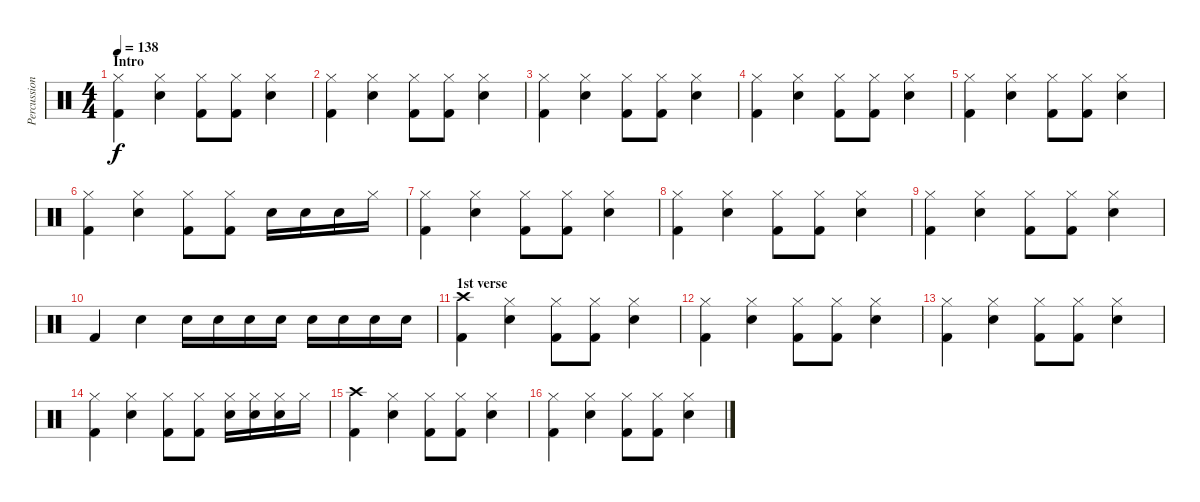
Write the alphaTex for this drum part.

\track ("Percussion" "Percussion") {instrument percussion}
\staff {score}
\articulation defaults
\ts (4 4)
\section ("" "Intro")
\tempo 138
\clef neutral
\ks c
("Kick (hit) 2" "Hi-Hat (closed)").4{dy f} ("Electric Snare (hit)" "Hi-Hat (closed)").4 ("Kick (hit) 2" "Hi-Hat (closed)").8 ("Kick (hit) 2" "Hi-Hat (closed)").8 ("Electric Snare (hit)" "Hi-Hat (closed)").4 |
("Kick (hit) 2" "Hi-Hat (closed)").4 ("Electric Snare (hit)" "Hi-Hat (closed)").4 ("Kick (hit) 2" "Hi-Hat (closed)").8 ("Kick (hit) 2" "Hi-Hat (closed)").8 ("Electric Snare (hit)" "Hi-Hat (closed)").4 |
("Kick (hit) 2" "Hi-Hat (closed)").4 ("Electric Snare (hit)" "Hi-Hat (closed)").4 ("Kick (hit) 2" "Hi-Hat (closed)").8 ("Kick (hit) 2" "Hi-Hat (closed)").8 ("Electric Snare (hit)" "Hi-Hat (closed)").4 |
("Kick (hit) 2" "Hi-Hat (closed)").4 ("Electric Snare (hit)" "Hi-Hat (closed)").4 ("Kick (hit) 2" "Hi-Hat (closed)").8 ("Kick (hit) 2" "Hi-Hat (closed)").8 ("Electric Snare (hit)" "Hi-Hat (closed)").4 |
("Kick (hit) 2" "Hi-Hat (closed)").4 ("Electric Snare (hit)" "Hi-Hat (closed)").4 ("Kick (hit) 2" "Hi-Hat (closed)").8 ("Kick (hit) 2" "Hi-Hat (closed)").8 ("Electric Snare (hit)" "Hi-Hat (closed)").4 |
("Kick (hit) 2" "Hi-Hat (closed)").4 ("Electric Snare (hit)" "Hi-Hat (closed)").4 ("Kick (hit) 2" "Hi-Hat (closed)").8 ("Kick (hit) 2" "Hi-Hat (closed)").8 "Electric Snare (hit)".16 "Electric Snare (hit)".16 "Electric Snare (hit)".16 "Hi-Hat (closed)".16 |
("Kick (hit) 2" "Hi-Hat (closed)").4 ("Electric Snare (hit)" "Hi-Hat (closed)").4 ("Kick (hit) 2" "Hi-Hat (closed)").8 ("Kick (hit) 2" "Hi-Hat (closed)").8 ("Electric Snare (hit)" "Hi-Hat (closed)").4 |
("Kick (hit) 2" "Hi-Hat (closed)").4 ("Electric Snare (hit)" "Hi-Hat (closed)").4 ("Kick (hit) 2" "Hi-Hat (closed)").8 ("Kick (hit) 2" "Hi-Hat (closed)").8 ("Electric Snare (hit)" "Hi-Hat (closed)").4 |
("Kick (hit) 2" "Hi-Hat (closed)").4 ("Electric Snare (hit)" "Hi-Hat (closed)").4 ("Kick (hit) 2" "Hi-Hat (closed)").8 ("Kick (hit) 2" "Hi-Hat (closed)").8 ("Electric Snare (hit)" "Hi-Hat (closed)").4 |
"Kick (hit) 2".4 "Electric Snare (hit)".4 "Electric Snare (hit)".16 "Electric Snare (hit)".16 "Electric Snare (hit)".16 "Electric Snare (hit)".16 "Electric Snare (hit)".16 "Electric Snare (hit)".16 "Electric Snare (hit)".16 "Electric Snare (hit)".16 |
\section ("" "1st verse")
("Kick (hit) 2" "Crash high (hit)").4 ("Electric Snare (hit)" "Hi-Hat (closed)").4 ("Kick (hit) 2" "Hi-Hat (closed)").8 ("Kick (hit) 2" "Hi-Hat (closed)").8 ("Electric Snare (hit)" "Hi-Hat (closed)").4 |
("Kick (hit) 2" "Hi-Hat (closed)").4 ("Electric Snare (hit)" "Hi-Hat (closed)").4 ("Kick (hit) 2" "Hi-Hat (closed)").8 ("Kick (hit) 2" "Hi-Hat (closed)").8 ("Electric Snare (hit)" "Hi-Hat (closed)").4 |
("Kick (hit) 2" "Hi-Hat (closed)").4 ("Electric Snare (hit)" "Hi-Hat (closed)").4 ("Kick (hit) 2" "Hi-Hat (closed)").8 ("Kick (hit) 2" "Hi-Hat (closed)").8 ("Electric Snare (hit)" "Hi-Hat (closed)").4 |
("Kick (hit) 2" "Hi-Hat (closed)").4 ("Electric Snare (hit)" "Hi-Hat (closed)").4 ("Kick (hit) 2" "Hi-Hat (closed)").8 ("Kick (hit) 2" "Hi-Hat (closed)").8 ("Electric Snare (hit)" "Hi-Hat (closed)").16 ("Electric Snare (hit)" "Hi-Hat (closed)").16 ("Electric Snare (hit)" "Hi-Hat (closed)").16 "Hi-Hat (closed)".16 |
("Kick (hit) 2" "Crash high (hit)").4 ("Electric Snare (hit)" "Hi-Hat (closed)").4 ("Kick (hit) 2" "Hi-Hat (closed)").8 ("Kick (hit) 2" "Hi-Hat (closed)").8 ("Electric Snare (hit)" "Hi-Hat (closed)").4 |
("Kick (hit) 2" "Hi-Hat (closed)").4 ("Electric Snare (hit)" "Hi-Hat (closed)").4 ("Kick (hit) 2" "Hi-Hat (closed)").8 ("Kick (hit) 2" "Hi-Hat (closed)").8 ("Electric Snare (hit)" "Hi-Hat (closed)").4
